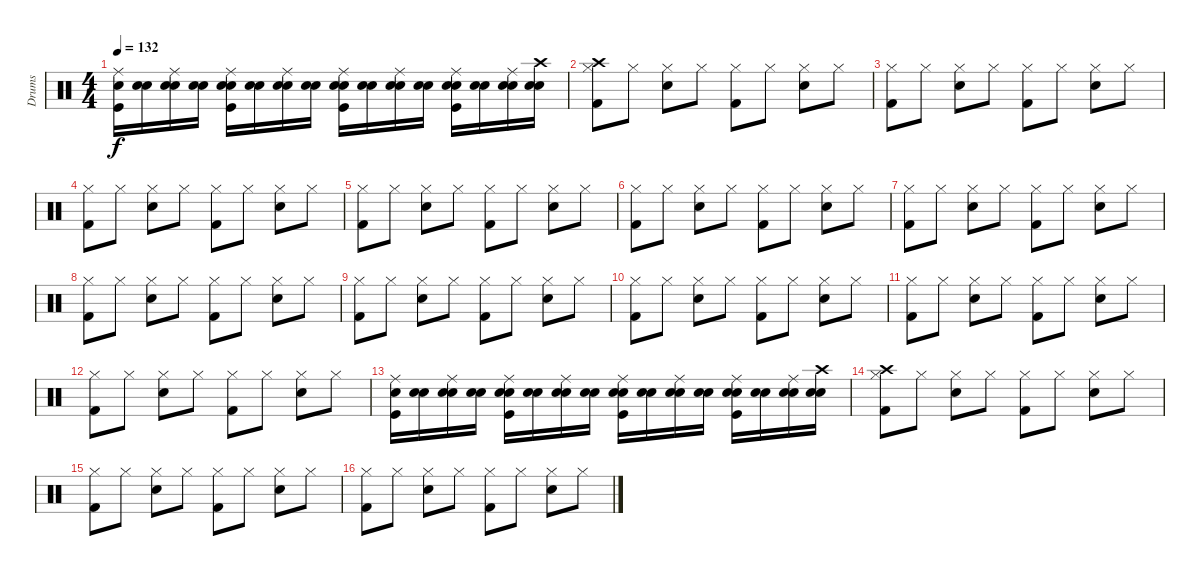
\track ("Drums" "Drums") {instrument percussion}
\staff {score}
\articulation defaults
\ts (4 4)
\tempo 132
\clef neutral
\ks c
("Snare (hit) 2" "Kick (hit)" "Ride (middle)").16{dy f} ("Snare (hit)" "Snare (hit) 2").16 ("Snare (hit)" "Snare (hit) 2" "Ride (middle)").16 ("Snare (hit)" "Snare (hit) 2").16 ("Snare (hit)" "Snare (hit) 2" "Kick (hit)" "Ride (middle)").16 ("Snare (hit)" "Snare (hit) 2").16 ("Snare (hit)" "Snare (hit) 2" "Ride (middle)").16 ("Snare (hit)" "Snare (hit) 2").16 ("Snare (hit)" "Snare (hit) 2" "Kick (hit)" "Ride (middle)").16 ("Snare (hit)" "Snare (hit) 2").16 ("Snare (hit)" "Snare (hit) 2" "Ride (middle)").16 ("Snare (hit)" "Snare (hit) 2").16 ("Snare (hit)" "Snare (hit) 2" "Kick (hit)" "Ride (middle)").16 ("Snare (hit)" "Snare (hit) 2").16 ("Snare (hit)" "Snare (hit) 2" "Ride (middle)").16 ("Snare (hit)" "Snare (hit) 2" "Crash high (hit)").16 |
("Hi-Hat (closed)" "Crash high (hit)" "Kick (hit) 2").8 "Hi-Hat (closed)".8 ("Hi-Hat (closed)" "Snare (hit) 2").8 "Hi-Hat (closed)".8 ("Hi-Hat (closed)" "Kick (hit) 2").8 "Hi-Hat (closed)".8 ("Hi-Hat (closed)" "Snare (hit) 2").8 "Hi-Hat (closed)".8 |
("Hi-Hat (closed)" "Kick (hit) 2").8 "Hi-Hat (closed)".8 ("Hi-Hat (closed)" "Snare (hit) 2").8 "Hi-Hat (closed)".8 ("Hi-Hat (closed)" "Kick (hit) 2").8 "Hi-Hat (closed)".8 ("Hi-Hat (closed)" "Snare (hit) 2").8 "Hi-Hat (closed)".8 |
("Hi-Hat (closed)" "Kick (hit) 2").8 "Hi-Hat (closed)".8 ("Hi-Hat (closed)" "Snare (hit) 2").8 "Hi-Hat (closed)".8 ("Hi-Hat (closed)" "Kick (hit) 2").8 "Hi-Hat (closed)".8 ("Hi-Hat (closed)" "Snare (hit) 2").8 "Hi-Hat (closed)".8 |
("Hi-Hat (closed)" "Kick (hit) 2").8 "Hi-Hat (closed)".8 ("Hi-Hat (closed)" "Snare (hit) 2").8 "Hi-Hat (closed)".8 ("Hi-Hat (closed)" "Kick (hit) 2").8 "Hi-Hat (closed)".8 ("Hi-Hat (closed)" "Snare (hit) 2").8 "Hi-Hat (closed)".8 |
("Hi-Hat (closed)" "Kick (hit) 2").8 "Hi-Hat (closed)".8 ("Hi-Hat (closed)" "Snare (hit) 2").8 "Hi-Hat (closed)".8 ("Hi-Hat (closed)" "Kick (hit) 2").8 "Hi-Hat (closed)".8 ("Hi-Hat (closed)" "Snare (hit) 2").8 "Hi-Hat (closed)".8 |
("Hi-Hat (closed)" "Kick (hit) 2").8 "Hi-Hat (closed)".8 ("Hi-Hat (closed)" "Snare (hit) 2").8 "Hi-Hat (closed)".8 ("Hi-Hat (closed)" "Kick (hit) 2").8 "Hi-Hat (closed)".8 ("Hi-Hat (closed)" "Snare (hit) 2").8 "Hi-Hat (closed)".8 |
("Hi-Hat (closed)" "Kick (hit) 2").8 "Hi-Hat (closed)".8 ("Hi-Hat (closed)" "Snare (hit) 2").8 "Hi-Hat (closed)".8 ("Hi-Hat (closed)" "Kick (hit) 2").8 "Hi-Hat (closed)".8 ("Hi-Hat (closed)" "Snare (hit) 2").8 "Hi-Hat (closed)".8 |
("Hi-Hat (closed)" "Kick (hit) 2").8 "Hi-Hat (closed)".8 ("Hi-Hat (closed)" "Snare (hit) 2").8 "Hi-Hat (closed)".8 ("Hi-Hat (closed)" "Kick (hit) 2").8 "Hi-Hat (closed)".8 ("Hi-Hat (closed)" "Snare (hit) 2").8 "Hi-Hat (closed)".8 |
("Hi-Hat (closed)" "Kick (hit) 2").8 "Hi-Hat (closed)".8 ("Hi-Hat (closed)" "Snare (hit) 2").8 "Hi-Hat (closed)".8 ("Hi-Hat (closed)" "Kick (hit) 2").8 "Hi-Hat (closed)".8 ("Hi-Hat (closed)" "Snare (hit) 2").8 "Hi-Hat (closed)".8 |
("Hi-Hat (closed)" "Kick (hit) 2").8 "Hi-Hat (closed)".8 ("Hi-Hat (closed)" "Snare (hit) 2").8 "Hi-Hat (closed)".8 ("Hi-Hat (closed)" "Kick (hit) 2").8 "Hi-Hat (closed)".8 ("Hi-Hat (closed)" "Snare (hit) 2").8 "Hi-Hat (closed)".8 |
("Hi-Hat (closed)" "Kick (hit) 2").8 "Hi-Hat (closed)".8 ("Hi-Hat (closed)" "Snare (hit) 2").8 "Hi-Hat (closed)".8 ("Hi-Hat (closed)" "Kick (hit) 2").8 "Hi-Hat (closed)".8 ("Hi-Hat (closed)" "Snare (hit) 2").8 "Hi-Hat (closed)".8 |
("Snare (hit) 2" "Kick (hit)" "Ride (middle)").16 ("Snare (hit)" "Snare (hit) 2").16 ("Snare (hit)" "Snare (hit) 2" "Ride (middle)").16 ("Snare (hit)" "Snare (hit) 2").16 ("Snare (hit)" "Snare (hit) 2" "Kick (hit)" "Ride (middle)").16 ("Snare (hit)" "Snare (hit) 2").16 ("Snare (hit)" "Snare (hit) 2" "Ride (middle)").16 ("Snare (hit)" "Snare (hit) 2").16 ("Snare (hit)" "Snare (hit) 2" "Kick (hit)" "Ride (middle)").16 ("Snare (hit)" "Snare (hit) 2").16 ("Snare (hit)" "Snare (hit) 2" "Ride (middle)").16 ("Snare (hit)" "Snare (hit) 2").16 ("Snare (hit)" "Snare (hit) 2" "Kick (hit)" "Ride (middle)").16 ("Snare (hit)" "Snare (hit) 2").16 ("Snare (hit)" "Snare (hit) 2" "Ride (middle)").16 ("Snare (hit)" "Snare (hit) 2" "Crash high (hit)").16 |
("Hi-Hat (closed)" "Crash high (hit)" "Kick (hit) 2").8 "Hi-Hat (closed)".8 ("Hi-Hat (closed)" "Snare (hit) 2").8 "Hi-Hat (closed)".8 ("Hi-Hat (closed)" "Kick (hit) 2").8 "Hi-Hat (closed)".8 ("Hi-Hat (closed)" "Snare (hit) 2").8 "Hi-Hat (closed)".8 |
("Hi-Hat (closed)" "Kick (hit) 2").8 "Hi-Hat (closed)".8 ("Hi-Hat (closed)" "Snare (hit) 2").8 "Hi-Hat (closed)".8 ("Hi-Hat (closed)" "Kick (hit) 2").8 "Hi-Hat (closed)".8 ("Hi-Hat (closed)" "Snare (hit) 2").8 "Hi-Hat (closed)".8 |
("Hi-Hat (closed)" "Kick (hit) 2").8 "Hi-Hat (closed)".8 ("Hi-Hat (closed)" "Snare (hit) 2").8 "Hi-Hat (closed)".8 ("Hi-Hat (closed)" "Kick (hit) 2").8 "Hi-Hat (closed)".8 ("Hi-Hat (closed)" "Snare (hit) 2").8 "Hi-Hat (closed)".8
